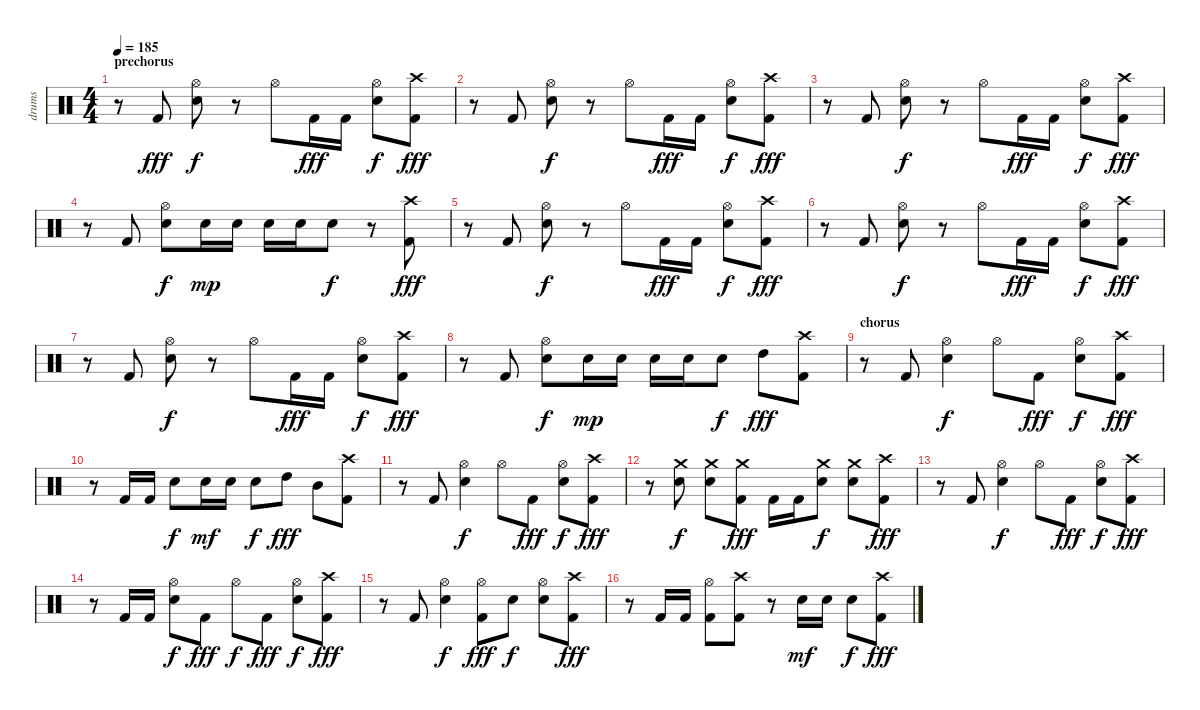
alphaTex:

\track ("drums" "drums") {instrument percussion}
\staff {score}
\articulation defaults
\ts (4 4)
\section ("" "prechorus")
\tempo 185
\clef neutral
\ks c
r.8{dy fff} "Kick (hit) 2".8 ("Hi-Hat (open)" "Snare (hit) 2").8{dy f} r.8 "Hi-Hat (open)".8 "Kick (hit) 2".16{dy fff} "Kick (hit) 2".16 ("Hi-Hat (open)" "Snare (hit) 2").8{dy f} ("Crash high (hit)" "Kick (hit) 2").8{dy fff} |
r.8 "Kick (hit) 2".8 ("Hi-Hat (open)" "Snare (hit) 2").8{dy f} r.8 "Hi-Hat (open)".8 "Kick (hit) 2".16{dy fff} "Kick (hit) 2".16 ("Hi-Hat (open)" "Snare (hit) 2").8{dy f} ("Crash high (hit)" "Kick (hit) 2").8{dy fff} |
r.8 "Kick (hit) 2".8 ("Hi-Hat (open)" "Snare (hit) 2").8{dy f} r.8 "Hi-Hat (open)".8 "Kick (hit) 2".16{dy fff} "Kick (hit) 2".16 ("Hi-Hat (open)" "Snare (hit) 2").8{dy f} ("Crash high (hit)" "Kick (hit) 2").8{dy fff} |
r.8 "Kick (hit) 2".8 ("Hi-Hat (open)" "Snare (hit) 2").8{dy f} "Snare (hit) 2".16{dy mp} "Snare (hit) 2".16 "Snare (hit) 2".16 "Snare (hit) 2".16 "Snare (hit) 2".8{dy f} r.8 ("Crash high (hit)" "Kick (hit) 2").8{dy fff} |
r.8 "Kick (hit) 2".8 ("Hi-Hat (open)" "Snare (hit) 2").8{dy f} r.8 "Hi-Hat (open)".8 "Kick (hit) 2".16{dy fff} "Kick (hit) 2".16 ("Hi-Hat (open)" "Snare (hit) 2").8{dy f} ("Crash high (hit)" "Kick (hit) 2").8{dy fff} |
r.8 "Kick (hit) 2".8 ("Hi-Hat (open)" "Snare (hit) 2").8{dy f} r.8 "Hi-Hat (open)".8 "Kick (hit) 2".16{dy fff} "Kick (hit) 2".16 ("Hi-Hat (open)" "Snare (hit) 2").8{dy f} ("Crash high (hit)" "Kick (hit) 2").8{dy fff} |
r.8 "Kick (hit) 2".8 ("Hi-Hat (open)" "Snare (hit) 2").8{dy f} r.8 "Hi-Hat (open)".8 "Kick (hit) 2".16{dy fff} "Kick (hit) 2".16 ("Hi-Hat (open)" "Snare (hit) 2").8{dy f} ("Crash high (hit)" "Kick (hit) 2").8{dy fff} |
r.8 "Kick (hit) 2".8 ("Hi-Hat (open)" "Snare (hit) 2").8{dy f} "Snare (hit) 2".16{dy mp} "Snare (hit) 2".16 "Snare (hit) 2".16 "Snare (hit) 2".16 "Snare (hit) 2".8{dy f} "High Tom (hit)".8{dy fff} ("Crash high (hit)" "Kick (hit) 2").8 |
\section ("" "chorus")
r.8 "Kick (hit) 2".8 ("Hi-Hat (open)" "Snare (hit) 2").4{dy f} "Hi-Hat (open)".8 "Kick (hit) 2".8{dy fff} ("Hi-Hat (open)" "Snare (hit) 2").8{dy f} ("Crash high (hit)" "Kick (hit) 2").8{dy fff} |
r.8 "Kick (hit) 2".16 "Kick (hit) 2".16 "Snare (hit) 2".8{dy f} "Snare (hit) 2".16{dy mf} "Snare (hit) 2".16 "Snare (hit) 2".8{dy f} "High Tom (hit)".8{dy fff} "Mid Tom (hit)".8 ("Crash high (hit)" "Kick (hit) 2").8 |
r.8 "Kick (hit) 2".8 ("Hi-Hat (open)" "Snare (hit) 2").4{dy f} "Hi-Hat (open)".8 "Kick (hit) 2".8{dy fff} ("Hi-Hat (open)" "Snare (hit) 2").8{dy f} ("Crash high (hit)" "Kick (hit) 2").8{dy fff} |
r.8 ("Crash medium (hit)" "Snare (hit) 2").8{dy f} ("Crash medium (hit)" "Snare (hit) 2").8 ("Crash medium (hit)" "Kick (hit) 2").8{dy fff} "Kick (hit) 2".16 "Kick (hit) 2".16 ("Crash medium (hit)" "Snare (hit) 2").8{dy f} ("Crash medium (hit)" "Snare (hit) 2").8 ("Crash high (hit)" "Kick (hit) 2").8{dy fff} |
r.8 "Kick (hit) 2".8 ("Hi-Hat (open)" "Snare (hit) 2").4{dy f} "Hi-Hat (open)".8 "Kick (hit) 2".8{dy fff} ("Hi-Hat (open)" "Snare (hit) 2").8{dy f} ("Crash high (hit)" "Kick (hit) 2").8{dy fff} |
r.8 "Kick (hit) 2".16 "Kick (hit) 2".16 ("Hi-Hat (open)" "Snare (hit) 2").8{dy f} "Kick (hit) 2".8{dy fff} "Hi-Hat (open)".8{dy f} "Kick (hit) 2".8{dy fff} ("Hi-Hat (open)" "Snare (hit) 2").8{dy f} ("Crash high (hit)" "Kick (hit) 2").8{dy fff} |
r.8 "Kick (hit) 2".8 ("Hi-Hat (open)" "Snare (hit) 2").4{dy f} ("Hi-Hat (open)" "Kick (hit) 2").8{dy fff} "Snare (hit) 2".8{dy f} ("Hi-Hat (open)" "Snare (hit) 2").8 ("Crash high (hit)" "Kick (hit) 2").8{dy fff} |
r.8 "Kick (hit) 2".16 "Kick (hit) 2".16 ("Hi-Hat (open)" "Kick (hit) 2").8 ("Crash high (hit)" "Kick (hit) 2").8 r.8 "Snare (hit) 2".16{dy mf} "Snare (hit) 2".16 "Snare (hit) 2".8{dy f} ("Crash high (hit)" "Kick (hit) 2").8{dy fff}
